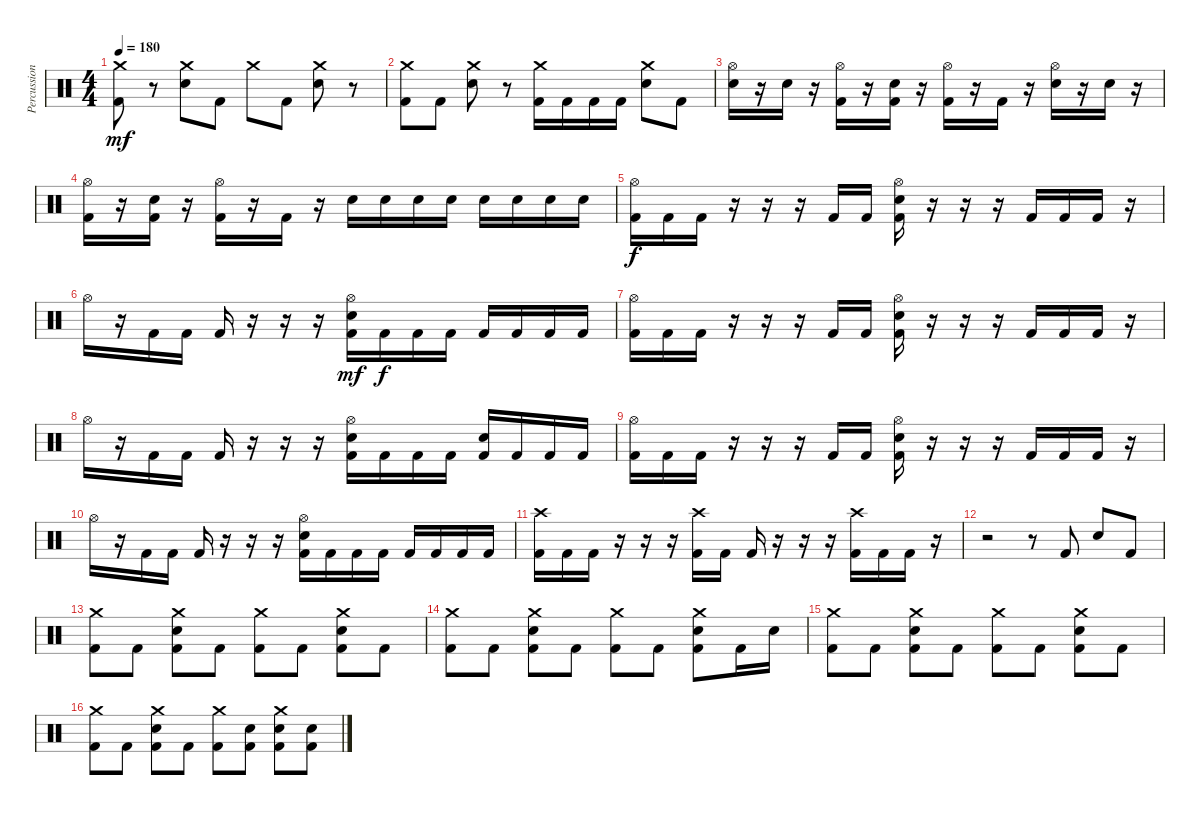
\track ("Percussion" "Percussion") {instrument percussion}
\staff {score}
\articulation defaults
\ts (4 4)
\tempo 180
\clef neutral
\ks c
("Crash medium (hit)" "Kick (hit) 2").8{dy mf} r.8 ("Crash medium (hit)" "Electric Snare (hit)").8 "Kick (hit) 2".8 "Crash medium (hit)".8 "Kick (hit) 2".8 ("Crash medium (hit)" "Electric Snare (hit)").8 r.8 |
("Crash medium (hit)" "Kick (hit) 2").8 "Kick (hit) 2".8 ("Crash medium (hit)" "Electric Snare (hit)").8 r.8 ("Crash medium (hit)" "Kick (hit) 2").16 "Kick (hit) 2".16 "Kick (hit) 2".16 "Kick (hit) 2".16 ("Crash medium (hit)" "Electric Snare (hit)").8 "Kick (hit) 2".8 |
("Hi-Hat (open)" "Electric Snare (hit)").16 r.16 "Electric Snare (hit)".16 r.16 ("Hi-Hat (open)" "Kick (hit) 2").16 r.16 ("Electric Snare (hit)" "Kick (hit) 2").16 r.16 ("Hi-Hat (open)" "Kick (hit) 2").16 r.16 "Kick (hit) 2".16 r.16 ("Hi-Hat (open)" "Electric Snare (hit)").16 r.16 "Electric Snare (hit)".16 r.16 |
("Hi-Hat (open)" "Kick (hit) 2").16 r.16 ("Electric Snare (hit)" "Kick (hit) 2").16 r.16 ("Hi-Hat (open)" "Kick (hit) 2").16 r.16 "Kick (hit) 2".16 r.16 "Electric Snare (hit)".16 "Electric Snare (hit)".16 "Electric Snare (hit)".16 "Electric Snare (hit)".16 "Electric Snare (hit)".16 "Electric Snare (hit)".16 "Electric Snare (hit)".16 "Electric Snare (hit)".16 |
("Hi-Hat (open)" "Kick (hit) 2").16{dy f} "Kick (hit) 2".16 "Kick (hit) 2".16 r.16 r.16 r.16 "Kick (hit) 2".16 "Kick (hit) 2".16 ("Hi-Hat (open)" "Electric Snare (hit)" "Kick (hit) 2").16 r.16 r.16 r.16 "Kick (hit) 2".16 "Kick (hit) 2".16 "Kick (hit) 2".16 r.16 |
"Hi-Hat (open)".16 r.16 "Kick (hit) 2".16 "Kick (hit) 2".16 "Kick (hit) 2".16 r.16 r.16 r.16 ("Hi-Hat (open)" "Electric Snare (hit)" "Kick (hit) 2").16{dy mf} "Kick (hit) 2".16{dy f} "Kick (hit) 2".16 "Kick (hit) 2".16 "Kick (hit) 2".16 "Kick (hit) 2".16 "Kick (hit) 2".16 "Kick (hit) 2".16 |
("Hi-Hat (open)" "Kick (hit) 2").16 "Kick (hit) 2".16 "Kick (hit) 2".16 r.16 r.16 r.16 "Kick (hit) 2".16 "Kick (hit) 2".16 ("Hi-Hat (open)" "Electric Snare (hit)" "Kick (hit) 2").16 r.16 r.16 r.16 "Kick (hit) 2".16 "Kick (hit) 2".16 "Kick (hit) 2".16 r.16 |
"Hi-Hat (open)".16 r.16 "Kick (hit) 2".16 "Kick (hit) 2".16 "Kick (hit) 2".16 r.16 r.16 r.16 ("Hi-Hat (open)" "Electric Snare (hit)" "Kick (hit) 2").16 "Kick (hit) 2".16 "Kick (hit) 2".16 "Kick (hit) 2".16 ("Electric Snare (hit)" "Kick (hit) 2").16 "Kick (hit) 2".16 "Kick (hit) 2".16 "Kick (hit) 2".16 |
("Hi-Hat (open)" "Kick (hit) 2").16 "Kick (hit) 2".16 "Kick (hit) 2".16 r.16 r.16 r.16 "Kick (hit) 2".16 "Kick (hit) 2".16 ("Hi-Hat (open)" "Electric Snare (hit)" "Kick (hit) 2").16 r.16 r.16 r.16 "Kick (hit) 2".16 "Kick (hit) 2".16 "Kick (hit) 2".16 r.16 |
"Hi-Hat (open)".16 r.16 "Kick (hit) 2".16 "Kick (hit) 2".16 "Kick (hit) 2".16 r.16 r.16 r.16 ("Hi-Hat (open)" "Electric Snare (hit)" "Kick (hit) 2").16 "Kick (hit) 2".16 "Kick (hit) 2".16 "Kick (hit) 2".16 "Kick (hit) 2".16 "Kick (hit) 2".16 "Kick (hit) 2".16 "Kick (hit) 2".16 |
("Crash high (hit)" "Kick (hit) 2").16 "Kick (hit) 2".16 "Kick (hit) 2".16 r.16 r.16 r.16 ("Crash high (hit)" "Kick (hit) 2").16 "Kick (hit) 2".16 "Kick (hit) 2".16 r.16 r.16 r.16 ("Crash high (hit)" "Kick (hit) 2").16 "Kick (hit) 2".16 "Kick (hit) 2".16 r.16 |
r.2 r.8 "Kick (hit) 2".8 "Electric Snare (hit)".8 "Kick (hit) 2".8 |
("Crash medium (hit)" "Kick (hit) 2").8 "Kick (hit) 2".8 ("Crash medium (hit)" "Electric Snare (hit)" "Kick (hit) 2").8 "Kick (hit) 2".8 ("Crash medium (hit)" "Kick (hit) 2").8 "Kick (hit) 2".8 ("Crash medium (hit)" "Electric Snare (hit)" "Kick (hit) 2").8 "Kick (hit) 2".8 |
("Crash medium (hit)" "Kick (hit) 2").8 "Kick (hit) 2".8 ("Crash medium (hit)" "Electric Snare (hit)" "Kick (hit) 2").8 "Kick (hit) 2".8 ("Crash medium (hit)" "Kick (hit) 2").8 "Kick (hit) 2".8 ("Crash medium (hit)" "Electric Snare (hit)" "Kick (hit) 2").8 "Kick (hit) 2".16 "Electric Snare (hit)".16 |
("Crash medium (hit)" "Kick (hit) 2").8 "Kick (hit) 2".8 ("Crash medium (hit)" "Electric Snare (hit)" "Kick (hit) 2").8 "Kick (hit) 2".8 ("Crash medium (hit)" "Kick (hit) 2").8 "Kick (hit) 2".8 ("Crash medium (hit)" "Electric Snare (hit)" "Kick (hit) 2").8 "Kick (hit) 2".8 |
("Crash medium (hit)" "Kick (hit) 2").8 "Kick (hit) 2".8 ("Crash medium (hit)" "Electric Snare (hit)" "Kick (hit) 2").8 "Kick (hit) 2".8 ("Crash medium (hit)" "Kick (hit) 2").8 ("Electric Snare (hit)" "Kick (hit) 2").8 ("Crash medium (hit)" "Electric Snare (hit)" "Kick (hit) 2").8 ("Electric Snare (hit)" "Kick (hit) 2").8
